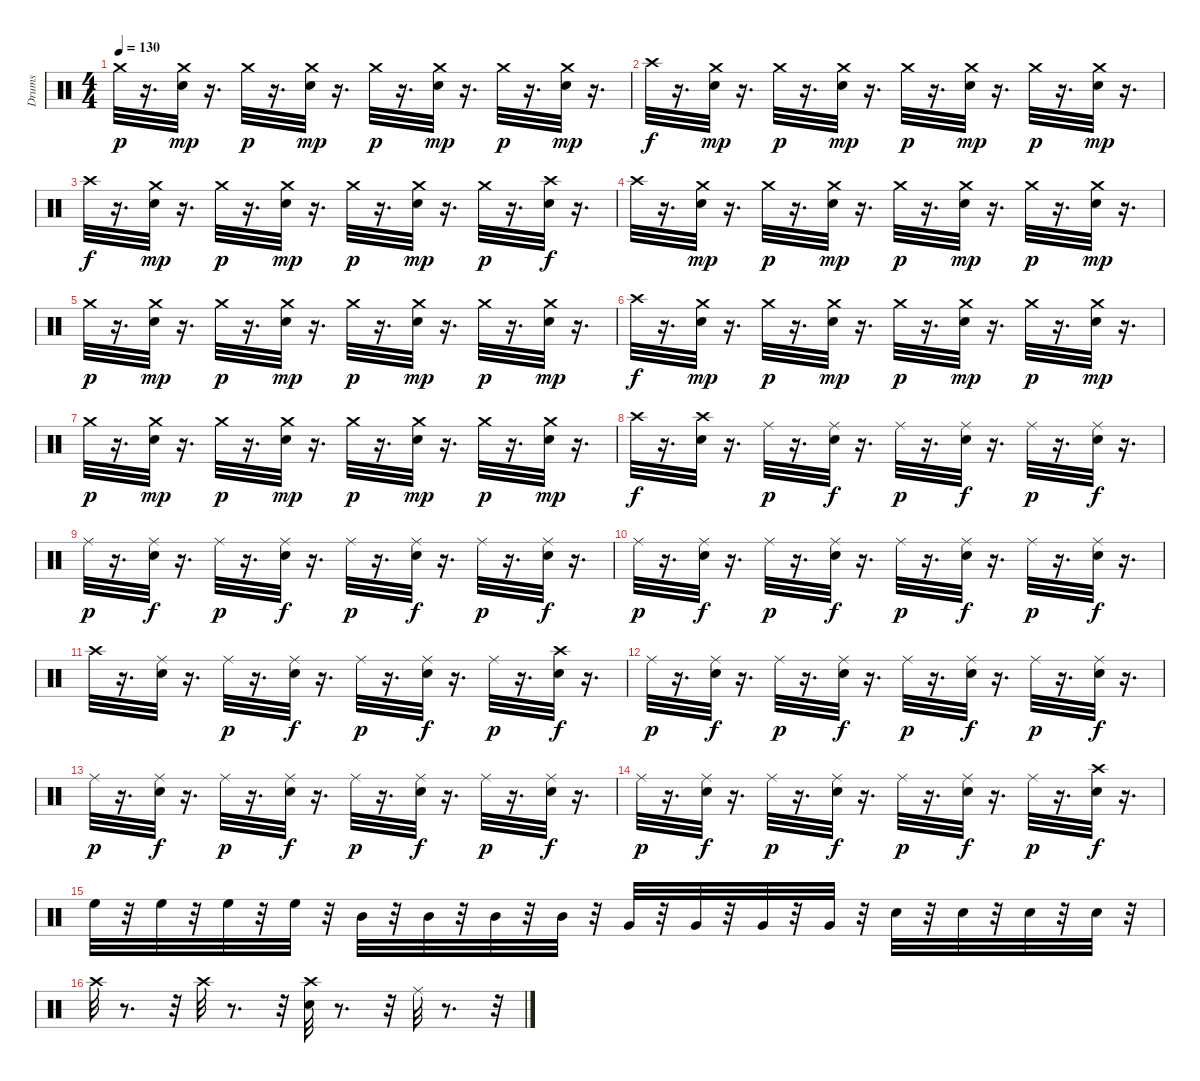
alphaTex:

\track ("Drums" "Drums") {instrument percussion}
\staff {score}
\articulation defaults
\ts (4 4)
\tempo 130
\clef neutral
\ks c "Crash medium (hit)".32{dy p}
r.16{d} ("Snare (hit) 2" "Crash medium (hit)").32{dy mp} r.16{d} "Crash medium (hit)".32{dy p} r.16{d} ("Snare (hit) 2" "Crash medium (hit)").32{dy mp} r.16{d} "Crash medium (hit)".32{dy p} r.16{d} ("Snare (hit) 2" "Crash medium (hit)").32{dy mp} r.16{d} "Crash medium (hit)".32{dy p} r.16{d} ("Snare (hit) 2" "Crash medium (hit)").32{dy mp} r.16{d} |
"Crash high (hit)".32{dy f} r.16{d} ("Snare (hit) 2" "Crash medium (hit)").32{dy mp} r.16{d} "Crash medium (hit)".32{dy p} r.16{d} ("Snare (hit) 2" "Crash medium (hit)").32{dy mp} r.16{d} "Crash medium (hit)".32{dy p} r.16{d} ("Snare (hit) 2" "Crash medium (hit)").32{dy mp} r.16{d} "Crash medium (hit)".32{dy p} r.16{d} ("Snare (hit) 2" "Crash medium (hit)").32{dy mp} r.16{d} |
"Crash high (hit)".32{dy f} r.16{d} ("Snare (hit) 2" "Crash medium (hit)").32{dy mp} r.16{d} "Crash medium (hit)".32{dy p} r.16{d} ("Snare (hit) 2" "Crash medium (hit)").32{dy mp} r.16{d} "Crash medium (hit)".32{dy p} r.16{d} ("Snare (hit) 2" "Crash medium (hit)").32{dy mp} r.16{d} "Crash medium (hit)".32{dy p} r.16{d} ("Crash high (hit)" "Snare (hit) 2").32{dy f} r.16{d} |
"Crash high (hit)".32 r.16{d} ("Snare (hit) 2" "Crash medium (hit)").32{dy mp} r.16{d} "Crash medium (hit)".32{dy p} r.16{d} ("Snare (hit) 2" "Crash medium (hit)").32{dy mp} r.16{d} "Crash medium (hit)".32{dy p} r.16{d} ("Snare (hit) 2" "Crash medium (hit)").32{dy mp} r.16{d} "Crash medium (hit)".32{dy p} r.16{d} ("Snare (hit) 2" "Crash medium (hit)").32{dy mp} r.16{d} |
"Crash medium (hit)".32{dy p} r.16{d} ("Snare (hit) 2" "Crash medium (hit)").32{dy mp} r.16{d} "Crash medium (hit)".32{dy p} r.16{d} ("Snare (hit) 2" "Crash medium (hit)").32{dy mp} r.16{d} "Crash medium (hit)".32{dy p} r.16{d} ("Snare (hit) 2" "Crash medium (hit)").32{dy mp} r.16{d} "Crash medium (hit)".32{dy p} r.16{d} ("Snare (hit) 2" "Crash medium (hit)").32{dy mp} r.16{d} |
"Crash high (hit)".32{dy f} r.16{d} ("Snare (hit) 2" "Crash medium (hit)").32{dy mp} r.16{d} "Crash medium (hit)".32{dy p} r.16{d} ("Snare (hit) 2" "Crash medium (hit)").32{dy mp} r.16{d} "Crash medium (hit)".32{dy p} r.16{d} ("Snare (hit) 2" "Crash medium (hit)").32{dy mp} r.16{d} "Crash medium (hit)".32{dy p} r.16{d} ("Snare (hit) 2" "Crash medium (hit)").32{dy mp} r.16{d} |
"Crash medium (hit)".32{dy p} r.16{d} ("Snare (hit) 2" "Crash medium (hit)").32{dy mp} r.16{d} "Crash medium (hit)".32{dy p} r.16{d} ("Snare (hit) 2" "Crash medium (hit)").32{dy mp} r.16{d} "Crash medium (hit)".32{dy p} r.16{d} ("Snare (hit) 2" "Crash medium (hit)").32{dy mp} r.16{d} "Crash medium (hit)".32{dy p} r.16{d} ("Snare (hit) 2" "Crash medium (hit)").32{dy mp} r.16{d} |
"Crash high (hit)".32{dy f} r.16{d} ("Crash high (hit)" "Snare (hit) 2").32 r.16{d} "Ride (middle)".32{dy p} r.16{d} ("Snare (hit) 2" "Ride (middle)").32{dy f} r.16{d} "Ride (middle)".32{dy p} r.16{d} ("Snare (hit) 2" "Ride (middle)").32{dy f} r.16{d} "Ride (middle)".32{dy p} r.16{d} ("Snare (hit) 2" "Ride (middle)").32{dy f} r.16{d} |
"Ride (middle)".32{dy p} r.16{d} ("Snare (hit) 2" "Ride (middle)").32{dy f} r.16{d} "Ride (middle)".32{dy p} r.16{d} ("Snare (hit) 2" "Ride (middle)").32{dy f} r.16{d} "Ride (middle)".32{dy p} r.16{d} ("Snare (hit) 2" "Ride (middle)").32{dy f} r.16{d} "Ride (middle)".32{dy p} r.16{d} ("Snare (hit) 2" "Ride (middle)").32{dy f} r.16{d} |
"Ride (middle)".32{dy p} r.16{d} ("Snare (hit) 2" "Ride (middle)").32{dy f} r.16{d} "Ride (middle)".32{dy p} r.16{d} ("Snare (hit) 2" "Ride (middle)").32{dy f} r.16{d} "Ride (middle)".32{dy p} r.16{d} ("Snare (hit) 2" "Ride (middle)").32{dy f} r.16{d} "Ride (middle)".32{dy p} r.16{d} ("Snare (hit) 2" "Ride (middle)").32{dy f} r.16{d} |
"Crash high (hit)".32 r.16{d} ("Ride (middle)" "Snare (hit) 2").32 r.16{d} "Ride (middle)".32{dy p} r.16{d} ("Snare (hit) 2" "Ride (middle)").32{dy f} r.16{d} "Ride (middle)".32{dy p} r.16{d} ("Snare (hit) 2" "Ride (middle)").32{dy f} r.16{d} "Ride (middle)".32{dy p} r.16{d} ("Crash high (hit)" "Snare (hit) 2").32{dy f} r.16{d} |
"Ride (middle)".32{dy p} r.16{d} ("Snare (hit) 2" "Ride (middle)").32{dy f} r.16{d} "Ride (middle)".32{dy p} r.16{d} ("Snare (hit) 2" "Ride (middle)").32{dy f} r.16{d} "Ride (middle)".32{dy p} r.16{d} ("Snare (hit) 2" "Ride (middle)").32{dy f} r.16{d} "Ride (middle)".32{dy p} r.16{d} ("Snare (hit) 2" "Ride (middle)").32{dy f} r.16{d} |
"Ride (middle)".32{dy p} r.16{d} ("Snare (hit) 2" "Ride (middle)").32{dy f} r.16{d} "Ride (middle)".32{dy p} r.16{d} ("Snare (hit) 2" "Ride (middle)").32{dy f} r.16{d} "Ride (middle)".32{dy p} r.16{d} ("Snare (hit) 2" "Ride (middle)").32{dy f} r.16{d} "Ride (middle)".32{dy p} r.16{d} ("Snare (hit) 2" "Ride (middle)").32{dy f} r.16{d} |
"Ride (middle)".32{dy p} r.16{d} ("Snare (hit) 2" "Ride (middle)").32{dy f} r.16{d} "Ride (middle)".32{dy p} r.16{d} ("Snare (hit) 2" "Ride (middle)").32{dy f} r.16{d} "Ride (middle)".32{dy p} r.16{d} ("Snare (hit) 2" "Ride (middle)").32{dy f} r.16{d} "Ride (middle)".32{dy p} r.16{d} ("Crash high (hit)" "Snare (hit) 2").32{dy f} r.16{d} |
"High Floor Tom (hit)".32 r.32 "High Floor Tom (hit)".32 r.32 "High Floor Tom (hit)".32 r.32 "High Floor Tom (hit)".32 r.32 "Mid Tom (hit)".32 r.32 "Mid Tom (hit)".32 r.32 "Mid Tom (hit)".32 r.32 "Mid Tom (hit)".32 r.32 "Very Low Tom (hit)".32 r.32 "Very Low Tom (hit)".32 r.32 "Very Low Tom (hit)".32 r.32 "Very Low Tom (hit)".32 r.32 "Snare (hit)".32 r.32 "Snare (hit)".32 r.32 "Snare (hit)".32 r.32 "Snare (hit)".32 r.32 |
"Crash high (hit)".32 r.8{d} r.32 "Crash high (hit)".32 r.8{d} r.32 ("Snare (hit) 2" "Crash high (hit)").32 r.8{d} r.32 "Ride (middle)".32 r.8{d} r.32
